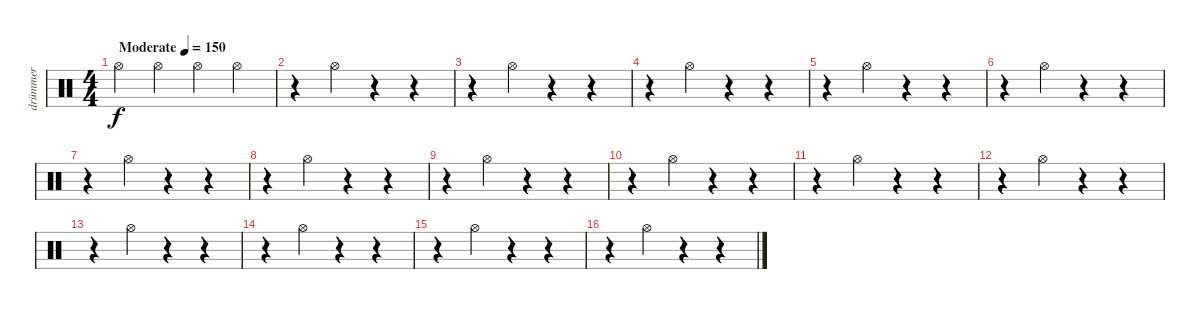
\track ("drümmer" "drümmer") {instrument percussion}
\staff {score}
\articulation defaults
\ts (4 4)
\tempo (150 "Moderate")
\clef neutral
\ks c "Hi-Hat (open)".4{dy f} "Hi-Hat (open)".4 "Hi-Hat (open)".4 "Hi-Hat (open)".4
|
r.4 "Hi-Hat (open)".4 r.4 r.4 |
r.4 "Hi-Hat (open)".4 r.4 r.4 |
r.4 "Hi-Hat (open)".4 r.4 r.4 |
r.4 "Hi-Hat (open)".4 r.4 r.4 |
r.4 "Hi-Hat (open)".4 r.4 r.4 |
r.4 "Hi-Hat (open)".4 r.4 r.4 |
r.4 "Hi-Hat (open)".4 r.4 r.4 |
r.4 "Hi-Hat (open)".4 r.4 r.4 |
r.4 "Hi-Hat (open)".4 r.4 r.4 |
r.4 "Hi-Hat (open)".4 r.4 r.4 |
r.4 "Hi-Hat (open)".4 r.4 r.4 |
r.4 "Hi-Hat (open)".4 r.4 r.4 |
r.4 "Hi-Hat (open)".4 r.4 r.4 |
r.4 "Hi-Hat (open)".4 r.4 r.4 |
r.4 "Hi-Hat (open)".4 r.4 r.4
